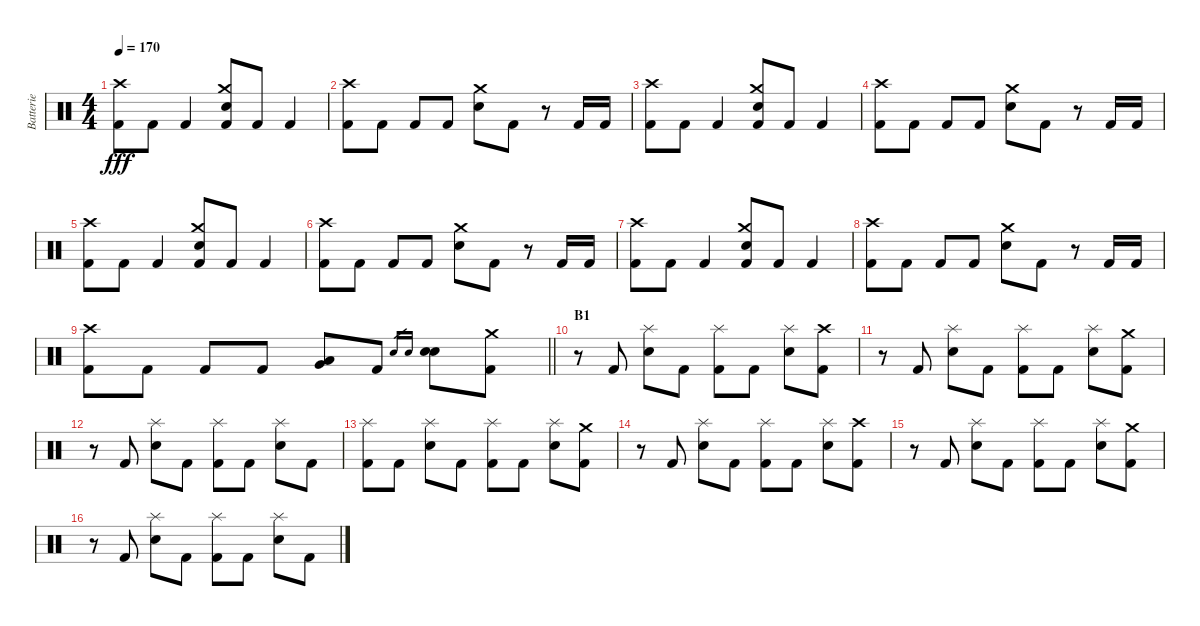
\track ("Batterie" "Batterie") {instrument percussion}
\staff {score}
\articulation defaults
\ts (4 4)
\tempo 170
\clef neutral
\ks c
("Crash high (hit)" "Kick (hit) 2").8{dy fff} "Kick (hit) 2".8 "Kick (hit) 2".4 ("Crash medium (hit)" "Electric Snare (hit)" "Kick (hit) 2").8 "Kick (hit) 2".8 "Kick (hit) 2".4 |
("Crash high (hit)" "Kick (hit) 2").8 "Kick (hit) 2".8 "Kick (hit) 2".8 "Kick (hit) 2".8 ("Crash medium (hit)" "Electric Snare (hit)").8 "Kick (hit) 2".8 r.8 "Kick (hit) 2".16 "Kick (hit) 2".16 |
("Crash high (hit)" "Kick (hit) 2").8 "Kick (hit) 2".8 "Kick (hit) 2".4 ("Crash medium (hit)" "Electric Snare (hit)" "Kick (hit) 2").8 "Kick (hit) 2".8 "Kick (hit) 2".4 |
("Crash high (hit)" "Kick (hit) 2").8 "Kick (hit) 2".8 "Kick (hit) 2".8 "Kick (hit) 2".8 ("Crash medium (hit)" "Electric Snare (hit)").8 "Kick (hit) 2".8 r.8 "Kick (hit) 2".16 "Kick (hit) 2".16 |
("Crash high (hit)" "Kick (hit) 2").8 "Kick (hit) 2".8 "Kick (hit) 2".4 ("Crash medium (hit)" "Electric Snare (hit)" "Kick (hit) 2").8 "Kick (hit) 2".8 "Kick (hit) 2".4 |
("Crash high (hit)" "Kick (hit) 2").8 "Kick (hit) 2".8 "Kick (hit) 2".8 "Kick (hit) 2".8 ("Crash medium (hit)" "Electric Snare (hit)").8 "Kick (hit) 2".8 r.8 "Kick (hit) 2".16 "Kick (hit) 2".16 |
("Crash high (hit)" "Kick (hit) 2").8 "Kick (hit) 2".8 "Kick (hit) 2".4 ("Crash medium (hit)" "Electric Snare (hit)" "Kick (hit) 2").8 "Kick (hit) 2".8 "Kick (hit) 2".4 |
("Crash high (hit)" "Kick (hit) 2").8 "Kick (hit) 2".8 "Kick (hit) 2".8 "Kick (hit) 2".8 ("Crash medium (hit)" "Electric Snare (hit)").8 "Kick (hit) 2".8 r.8 "Kick (hit) 2".16 "Kick (hit) 2".16 |
\barLineRight lightlight
("Crash high (hit)" "Kick (hit) 2").8 "Kick (hit) 2".8 "Kick (hit) 2".8 "Kick (hit) 2".8 ("Very Low Tom (hit)" "Low Floor Tom (hit)").8 "Kick (hit) 2".8 "Electric Snare (hit)".16{gr} "Electric Snare (hit)".16{gr} ("Electric Snare (hit)" "Electric Snare (hit)").8 ("Crash medium (hit)" "Kick (hit) 2").8 |
\section ("" "B1")
r.8 "Kick (hit) 2".8 ("Splash (hit)" "Electric Snare (hit)").8 "Kick (hit) 2".8 ("Splash (hit)" "Kick (hit) 2").8 "Kick (hit) 2".8 ("Splash (hit)" "Electric Snare (hit)").8 ("Crash high (hit)" "Kick (hit) 2").8 |
r.8 "Kick (hit) 2".8 ("Splash (hit)" "Electric Snare (hit)").8 "Kick (hit) 2".8 ("Splash (hit)" "Kick (hit) 2").8 "Kick (hit) 2".8 ("Splash (hit)" "Electric Snare (hit)").8 ("Crash medium (hit)" "Kick (hit) 2").8 |
r.8 "Kick (hit) 2".8 ("Splash (hit)" "Electric Snare (hit)").8 "Kick (hit) 2".8 ("Splash (hit)" "Kick (hit) 2").8 "Kick (hit) 2".8 ("Splash (hit)" "Electric Snare (hit)").8 "Kick (hit) 2".8 |
("Splash (hit)" "Kick (hit) 2").8 "Kick (hit) 2".8 ("Splash (hit)" "Electric Snare (hit)").8 "Kick (hit) 2".8 ("Splash (hit)" "Kick (hit) 2").8 "Kick (hit) 2".8 ("Splash (hit)" "Electric Snare (hit)").8 ("Crash medium (hit)" "Kick (hit) 2").8 |
r.8 "Kick (hit) 2".8 ("Splash (hit)" "Electric Snare (hit)").8 "Kick (hit) 2".8 ("Splash (hit)" "Kick (hit) 2").8 "Kick (hit) 2".8 ("Splash (hit)" "Electric Snare (hit)").8 ("Crash high (hit)" "Kick (hit) 2").8 |
r.8 "Kick (hit) 2".8 ("Splash (hit)" "Electric Snare (hit)").8 "Kick (hit) 2".8 ("Splash (hit)" "Kick (hit) 2").8 "Kick (hit) 2".8 ("Splash (hit)" "Electric Snare (hit)").8 ("Crash medium (hit)" "Kick (hit) 2").8 |
r.8 "Kick (hit) 2".8 ("Splash (hit)" "Electric Snare (hit)").8 "Kick (hit) 2".8 ("Splash (hit)" "Kick (hit) 2").8 "Kick (hit) 2".8 ("Splash (hit)" "Electric Snare (hit)").8 "Kick (hit) 2".8
